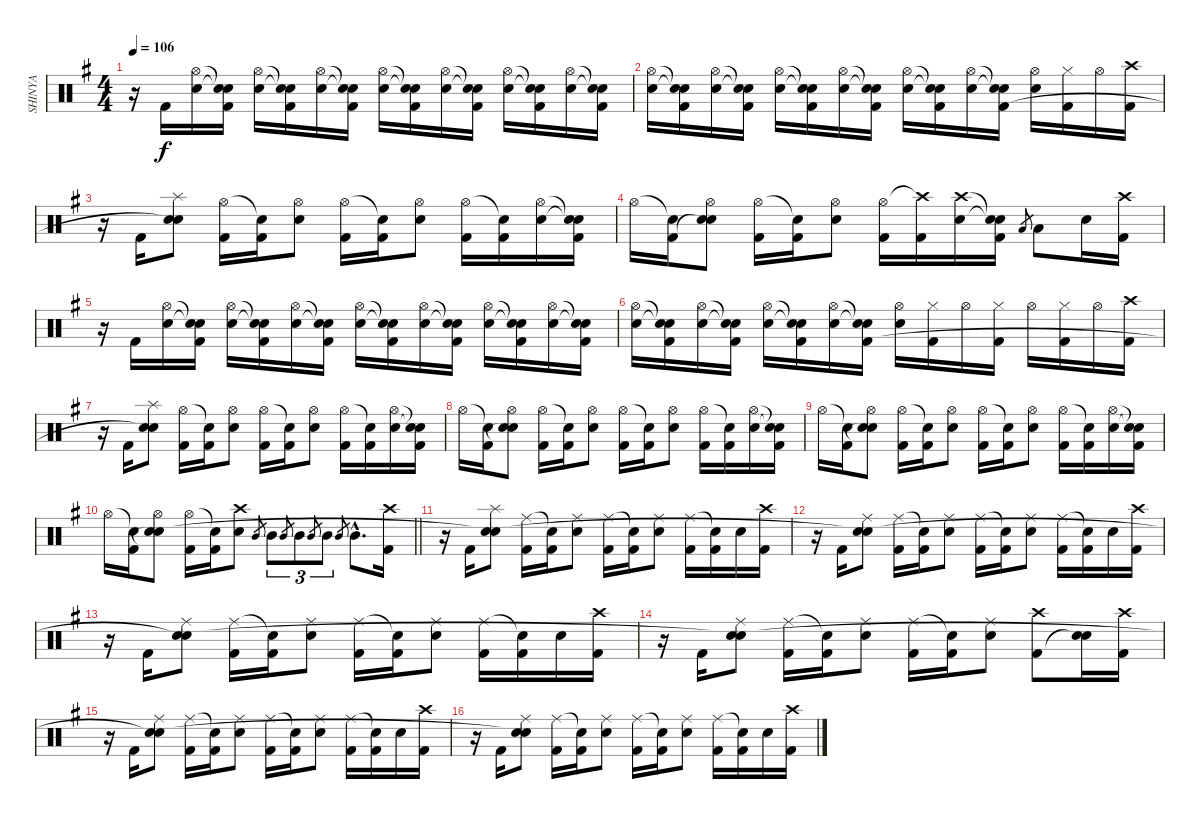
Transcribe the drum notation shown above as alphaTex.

\track ("SHINYA" "SHINYA") {instrument percussion}
\staff {score}
\articulation defaults
\ts (4 4)
\tempo 106
\clef neutral
\ks g
r.16{dy f} "Kick (hit) 2".16 ("Hi-Hat (open)" "Electric Snare (hit)").16 ("Snare (hit)"{t} "Snare (hit)"{t} "Kick (hit) 2").16 ("Hi-Hat (open)" "Electric Snare (hit)").16 ("Snare (hit)"{t} "Snare (hit)"{t} "Kick (hit) 2").16 ("Hi-Hat (open)" "Electric Snare (hit)").16 ("Snare (hit)"{t} "Snare (hit)"{t} "Kick (hit) 2").16 ("Hi-Hat (open)" "Electric Snare (hit)").16 ("Snare (hit)"{t} "Snare (hit)"{t} "Kick (hit) 2").16 ("Hi-Hat (open)" "Electric Snare (hit)").16 ("Snare (hit)"{t} "Snare (hit)"{t} "Kick (hit) 2").16 ("Hi-Hat (open)" "Electric Snare (hit)").16 ("Snare (hit)"{t} "Snare (hit)"{t} "Kick (hit) 2").16 ("Hi-Hat (open)" "Electric Snare (hit)").16 ("Snare (hit)"{t} "Snare (hit)"{t} "Kick (hit) 2").16 |
("Hi-Hat (open)" "Electric Snare (hit)").16 ("Snare (hit)"{t} "Snare (hit)"{t} "Kick (hit) 2").16 ("Hi-Hat (open)" "Electric Snare (hit)").16 ("Snare (hit)"{t} "Snare (hit)"{t} "Kick (hit) 2").16 ("Hi-Hat (open)" "Electric Snare (hit)").16 ("Snare (hit)"{t} "Snare (hit)"{t} "Kick (hit) 2").16 ("Hi-Hat (open)" "Electric Snare (hit)").16 ("Snare (hit)"{t} "Snare (hit)"{t} "Kick (hit) 2").16 ("Hi-Hat (open)" "Electric Snare (hit)").16 ("Snare (hit)"{t} "Snare (hit)"{t} "Kick (hit) 2").16 ("Hi-Hat (open)" "Electric Snare (hit)").16 ("Snare (hit)"{t} "Snare (hit)"{t} "Kick (hit) 2").16 ("Hi-Hat (open)" "Electric Snare (hit)").16 ("Hi-Hat (closed)" "Kick (hit) 2").16 "Hi-Hat (open)".16 ("Crash high (hit)" "Kick (hit) 2").16 |
r.16 "Kick (hit) 2".16 ("Splash (hit)" "Electric Snare (hit)" "Snare (hit)"{t}).8 ("Hi-Hat (open)" "Kick (hit) 2").16 ("Snare (hit)"{t} "Kick (hit) 2").16 ("Hi-Hat (open)" "Electric Snare (hit)").8 ("Hi-Hat (open)" "Kick (hit) 2").16 ("Snare (hit)"{t} "Kick (hit) 2").16 ("Hi-Hat (open)" "Electric Snare (hit)").8 ("Hi-Hat (open)" "Kick (hit) 2").16 ("Snare (hit)"{t} "Kick (hit) 2").16 ("Hi-Hat (open)" "Electric Snare (hit)").16 ("Snare (hit)"{t} "Snare (hit)"{t} "Kick (hit) 2").16 |
"Hi-Hat (open)".16 ("Snare (hit)"{t} "Kick (hit) 2").16 ("Hi-Hat (open)" "Snare (hit)"{t} "Electric Snare (hit)").8 ("Hi-Hat (open)" "Kick (hit) 2").16 ("Snare (hit)"{t} "Kick (hit) 2").16 ("Hi-Hat (open)" "Electric Snare (hit)").8 ("Hi-Hat (open)" "Kick (hit) 2").16 ("Crash high (hit)"{t} "Kick (hit) 2").16 ("Crash high (hit)" "Electric Snare (hit)").16 ("Snare (hit)"{t} "Snare (hit)"{t} "Kick (hit) 2").16 "Low Tom (hit)".8{gr} "Low Tom (hit)".8 "Electric Snare (hit)".16 ("Crash high (hit)" "Kick (hit) 2").16 |
r.16 "Kick (hit) 2".16 ("Hi-Hat (open)" "Electric Snare (hit)").16 ("Snare (hit)"{t} "Snare (hit)"{t} "Kick (hit) 2").16 ("Hi-Hat (open)" "Electric Snare (hit)").16 ("Snare (hit)"{t} "Snare (hit)"{t} "Kick (hit) 2").16 ("Hi-Hat (open)" "Electric Snare (hit)").16 ("Snare (hit)"{t} "Snare (hit)"{t} "Kick (hit) 2").16 ("Hi-Hat (open)" "Electric Snare (hit)").16 ("Snare (hit)"{t} "Snare (hit)"{t} "Kick (hit) 2").16 ("Hi-Hat (open)" "Electric Snare (hit)").16 ("Snare (hit)"{t} "Snare (hit)"{t} "Kick (hit) 2").16 ("Hi-Hat (open)" "Electric Snare (hit)").16 ("Snare (hit)"{t} "Snare (hit)"{t} "Kick (hit) 2").16 ("Hi-Hat (open)" "Electric Snare (hit)").16 ("Snare (hit)"{t} "Snare (hit)"{t} "Kick (hit) 2").16 |
("Hi-Hat (open)" "Electric Snare (hit)").16 ("Snare (hit)"{t} "Snare (hit)"{t} "Kick (hit) 2").16 ("Hi-Hat (open)" "Electric Snare (hit)").16 ("Snare (hit)"{t} "Snare (hit)"{t} "Kick (hit) 2").16 ("Hi-Hat (open)" "Electric Snare (hit)").16 ("Snare (hit)"{t} "Snare (hit)"{t} "Kick (hit) 2").16 ("Hi-Hat (open)" "Electric Snare (hit)").16 ("Snare (hit)"{t} "Snare (hit)"{t} "Kick (hit) 2").16 ("Hi-Hat (open)" "Electric Snare (hit)").16 ("Hi-Hat (closed)" "Kick (hit) 2").16 "Hi-Hat (open)".16 ("Hi-Hat (closed)" "Kick (hit) 2").16 "Hi-Hat (open)".16 ("Hi-Hat (closed)" "Kick (hit) 2").16 "Hi-Hat (open)".16 ("Crash high (hit)" "Kick (hit) 2").16 |
r.16 "Kick (hit) 2".16 ("Splash (hit)" "Electric Snare (hit)" "Snare (hit)"{t}).8 ("Hi-Hat (open)" "Kick (hit) 2").16 ("Snare (hit)"{t} "Kick (hit) 2").16 ("Hi-Hat (open)" "Electric Snare (hit)").8 ("Hi-Hat (open)" "Kick (hit) 2").16 ("Snare (hit)"{t} "Kick (hit) 2").16 ("Hi-Hat (open)" "Electric Snare (hit)").8 ("Hi-Hat (open)" "Kick (hit) 2").16 ("Snare (hit)"{t} "Kick (hit) 2").16 ("Hi-Hat (open)" "Electric Snare (hit)").16 ("Snare (hit)"{t} "Snare (hit)"{t} "Kick (hit) 2").16 |
"Hi-Hat (open)".16 ("Snare (hit)"{t} "Kick (hit) 2").16 ("Hi-Hat (open)" "Snare (hit)"{t} "Electric Snare (hit)").8 ("Hi-Hat (open)" "Kick (hit) 2").16 ("Snare (hit)"{t} "Kick (hit) 2").16 ("Hi-Hat (open)" "Electric Snare (hit)").8 ("Hi-Hat (open)" "Kick (hit) 2").16 ("Snare (hit)"{t} "Kick (hit) 2").16 ("Hi-Hat (open)" "Electric Snare (hit)").8 ("Hi-Hat (open)" "Kick (hit) 2").16 ("Snare (hit)"{t} "Kick (hit) 2").16 ("Hi-Hat (open)" "Electric Snare (hit)").16 ("Snare (hit)"{t} "Snare (hit)"{t} "Kick (hit) 2").16 |
"Hi-Hat (open)".16 ("Snare (hit)"{t} "Kick (hit) 2").16 ("Hi-Hat (open)" "Snare (hit)"{t} "Electric Snare (hit)").8 ("Hi-Hat (open)" "Kick (hit) 2").16 ("Snare (hit)"{t} "Kick (hit) 2").16 ("Hi-Hat (open)" "Electric Snare (hit)").8 ("Hi-Hat (open)" "Kick (hit) 2").16 ("Snare (hit)"{t} "Kick (hit) 2").16 ("Hi-Hat (open)" "Electric Snare (hit)").8 ("Hi-Hat (open)" "Kick (hit) 2").16 ("Snare (hit)"{t} "Kick (hit) 2").16 ("Hi-Hat (open)" "Electric Snare (hit)").16 ("Snare (hit)"{t} "Snare (hit)"{t} "Kick (hit) 2").16 |
\barLineRight lightlight "Hi-Hat (open)".16
("Snare (hit)"{t} "Kick (hit) 2").16 ("Hi-Hat (open)" "Snare (hit)"{t} "Electric Snare (hit)").8 ("Hi-Hat (open)" "Kick (hit) 2").16 ("Snare (hit)"{t} "Kick (hit) 2").16 ("Crash high (hit)" "Electric Snare (hit)").8 "Mid Tom (hit)".8{gr} "Mid Tom (hit)".8{tu (3 2)} "Mid Tom (hit)".8{gr} "Mid Tom (hit)".8{tu (3 2)} "Mid Tom (hit)".8{gr} "Mid Tom (hit)".8{tu (3 2)} "Mid Tom (hit)".8{gr} "Mid Tom (hit)"{hac}.8{d} ("Crash high (hit)" "Kick (hit) 2").16 |
r.16 "Kick (hit) 2".16 ("Splash (hit)" "Electric Snare (hit)" "Snare (hit)"{t}).8 ("Ride (middle)" "Kick (hit) 2").16 ("Snare (hit)"{t} "Kick (hit) 2").16 ("Ride (middle)" "Electric Snare (hit)").8 ("Ride (middle)" "Kick (hit) 2").16 ("Snare (hit)"{t} "Kick (hit) 2").16 ("Ride (middle)" "Electric Snare (hit)").8 ("Ride (middle)" "Kick (hit) 2").16 ("Snare (hit)"{t} "Kick (hit) 2").16 "Electric Snare (hit)".16 ("Crash high (hit)" "Kick (hit) 2").16 |
r.16 "Kick (hit) 2".16 ("Ride (middle)" "Electric Snare (hit)" "Snare (hit)"{t}).8 ("Ride (middle)" "Kick (hit) 2").16 ("Snare (hit)"{t} "Kick (hit) 2").16 ("Ride (middle)" "Electric Snare (hit)").8 ("Ride (middle)" "Kick (hit) 2").16 ("Snare (hit)"{t} "Kick (hit) 2").16 ("Ride (middle)" "Electric Snare (hit)").8 ("Ride (middle)" "Kick (hit) 2").16 ("Snare (hit)"{t} "Kick (hit) 2").16 "Electric Snare (hit)".16 ("Crash high (hit)" "Kick (hit) 2").16 |
r.16 "Kick (hit) 2".16 ("Ride (middle)" "Electric Snare (hit)" "Snare (hit)"{t}).8 ("Ride (middle)" "Kick (hit) 2").16 ("Snare (hit)"{t} "Kick (hit) 2").16 ("Ride (middle)" "Electric Snare (hit)").8 ("Ride (middle)" "Kick (hit) 2").16 ("Snare (hit)"{t} "Kick (hit) 2").16 ("Ride (middle)" "Electric Snare (hit)").8 ("Ride (middle)" "Kick (hit) 2").16 ("Snare (hit)"{t} "Kick (hit) 2").16 "Electric Snare (hit)".16 ("Crash high (hit)" "Kick (hit) 2").16 |
r.16 "Kick (hit) 2".16 ("Ride (middle)" "Electric Snare (hit)" "Snare (hit)"{t}).8 ("Ride (middle)" "Kick (hit) 2").16 ("Snare (hit)"{t} "Kick (hit) 2").16 ("Ride (middle)" "Electric Snare (hit)").8 ("Ride (middle)" "Kick (hit) 2").16 ("Snare (hit)"{t} "Kick (hit) 2").16 ("Ride (middle)" "Electric Snare (hit)").8 ("Crash high (hit)" "Kick (hit) 2").8 ("Electric Snare (hit)" "Snare (hit)"{t}).16 ("Crash high (hit)" "Kick (hit) 2").16 |
r.16 "Kick (hit) 2".16 ("Ride (middle)" "Electric Snare (hit)" "Snare (hit)"{t}).8 ("Ride (middle)" "Kick (hit) 2").16 ("Snare (hit)"{t} "Kick (hit) 2").16 ("Ride (middle)" "Electric Snare (hit)").8 ("Ride (middle)" "Kick (hit) 2").16 ("Snare (hit)"{t} "Kick (hit) 2").16 ("Ride (middle)" "Electric Snare (hit)").8 ("Ride (middle)" "Kick (hit) 2").16 ("Snare (hit)"{t} "Kick (hit) 2").16 "Electric Snare (hit)".16 ("Crash high (hit)" "Kick (hit) 2").16 |
r.16 "Kick (hit) 2".16 ("Ride (middle)" "Electric Snare (hit)" "Snare (hit)"{t}).8 ("Ride (middle)" "Kick (hit) 2").16 ("Snare (hit)"{t} "Kick (hit) 2").16 ("Ride (middle)" "Electric Snare (hit)").8 ("Ride (middle)" "Kick (hit) 2").16 ("Snare (hit)"{t} "Kick (hit) 2").16 ("Ride (middle)" "Electric Snare (hit)").8 ("Ride (middle)" "Kick (hit) 2").16 ("Snare (hit)"{t} "Kick (hit) 2").16 "Electric Snare (hit)".16 ("Crash high (hit)" "Kick (hit) 2").16
